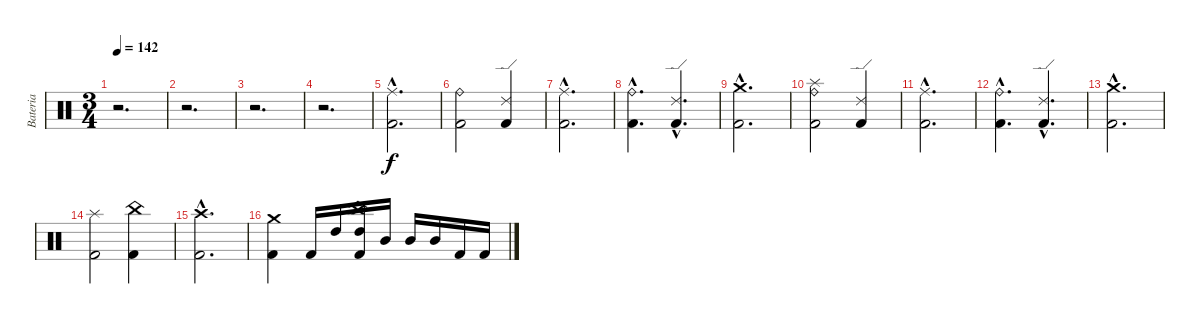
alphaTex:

\track ("Bateria" "Bateria") {instrument percussion}
\staff {score}
\articulation defaults
\ts (3 4)
\tempo 142
\clef neutral
\ks c
r.2{d dy f} |
r.2{d} |
r.2{d} |
r.2{d} |
("Ride (middle)"{hac} "Kick (hit) 2"{hac}).2{d} |
("Ride (bell)" "Kick (hit) 2").2 ("Ride (edge) 2" "Kick (hit) 2").4 |
("Ride (middle)"{hac} "Kick (hit) 2"{hac}).2{d} |
("Ride (bell)"{hac} "Kick (hit) 2"{hac}).4{d} ("Ride (edge) 2"{hac} "Kick (hit) 2"{hac}).4{d} |
("Crash medium (hit)"{hac} "Kick (hit) 2"{hac}).2{d} |
("Splash (hit)" "Ride (bell)" "Kick (hit) 2").2 ("Ride (edge) 2" "Kick (hit) 2").4 |
("Ride (middle)"{hac} "Kick (hit) 2"{hac}).2{d} |
("Ride (bell)"{hac} "Kick (hit) 2"{hac}).4{d} ("Ride (edge) 2"{hac} "Kick (hit) 2"{hac}).4{d} |
("Crash medium (hit)"{hac} "Kick (hit) 2"{hac}).2{d} |
("Splash (hit)" "Kick (hit) 2").2 ("China (hit)" "Kick (hit) 2").4 |
("Crash high (hit)"{hac} "Kick (hit) 2"{hac}).2{d} |
("Crash medium (hit)" "Kick (hit) 2").4 "Kick (hit) 2".16 "High Tom (hit)".16 ("China (hit)" "High Tom (hit)" "Kick (hit) 2").16 "Mid Tom (hit)".16 "Mid Tom (hit)".16 "Mid Tom (hit)".16 "Kick (hit) 2".16 "Kick (hit) 2".16
